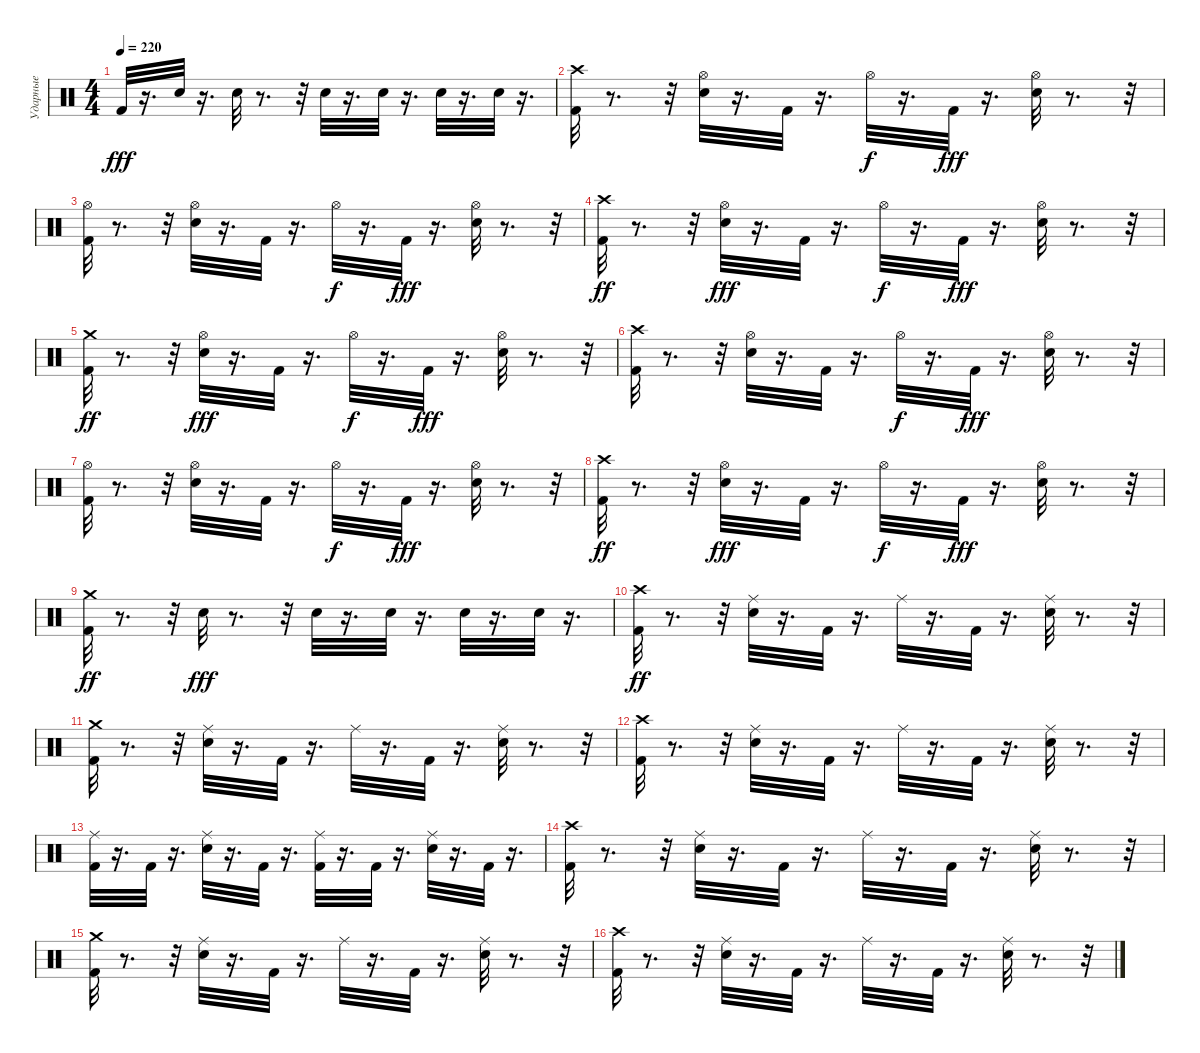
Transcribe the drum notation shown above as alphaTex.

\track ("Ударные" "Ударные") {instrument percussion}
\staff {score}
\articulation defaults
\ts (4 4)
\tempo 220
\clef neutral
\ks c "Kick (hit) 2".32{dy fff}
r.16{d} "Snare (hit) 2".32 r.16{d} "Snare (hit) 2".32 r.8{d} r.32 "Snare (hit) 2".32 r.16{d} "Snare (hit) 2".32 r.16{d} "Snare (hit) 2".32 r.16{d} "Snare (hit) 2".32 r.16{d} |
("Crash high (hit)" "Kick (hit) 2").32 r.8{d} r.32 ("Hi-Hat (open)" "Snare (hit) 2").32 r.16{d} "Kick (hit) 2".32 r.16{d} "Hi-Hat (open)".32{dy f} r.16{d} "Kick (hit) 2".32{dy fff} r.16{d} ("Hi-Hat (open)" "Snare (hit) 2").32 r.8{d} r.32 |
("Hi-Hat (open)" "Kick (hit) 2").32 r.8{d} r.32 ("Hi-Hat (open)" "Snare (hit) 2").32 r.16{d} "Kick (hit) 2".32 r.16{d} "Hi-Hat (open)".32{dy f} r.16{d} "Kick (hit) 2".32{dy fff} r.16{d} ("Hi-Hat (open)" "Snare (hit) 2").32 r.8{d} r.32 |
("Kick (hit) 2" "Crash high (hit)").32{dy ff} r.8{d} r.32 ("Snare (hit) 2" "Hi-Hat (open)").32{dy fff} r.16{d} "Kick (hit) 2".32 r.16{d} "Hi-Hat (open)".32{dy f} r.16{d} "Kick (hit) 2".32{dy fff} r.16{d} ("Snare (hit) 2" "Hi-Hat (open)").32 r.8{d} r.32 |
("Kick (hit) 2" "Crash medium (hit)").32{dy ff} r.8{d} r.32 ("Snare (hit) 2" "Hi-Hat (open)").32{dy fff} r.16{d} "Kick (hit) 2".32 r.16{d} "Hi-Hat (open)".32{dy f} r.16{d} "Kick (hit) 2".32{dy fff} r.16{d} ("Snare (hit) 2" "Hi-Hat (open)").32 r.8{d} r.32 |
("Crash high (hit)" "Kick (hit) 2").32 r.8{d} r.32 ("Hi-Hat (open)" "Snare (hit) 2").32 r.16{d} "Kick (hit) 2".32 r.16{d} "Hi-Hat (open)".32{dy f} r.16{d} "Kick (hit) 2".32{dy fff} r.16{d} ("Hi-Hat (open)" "Snare (hit) 2").32 r.8{d} r.32 |
("Hi-Hat (open)" "Kick (hit) 2").32 r.8{d} r.32 ("Hi-Hat (open)" "Snare (hit) 2").32 r.16{d} "Kick (hit) 2".32 r.16{d} "Hi-Hat (open)".32{dy f} r.16{d} "Kick (hit) 2".32{dy fff} r.16{d} ("Hi-Hat (open)" "Snare (hit) 2").32 r.8{d} r.32 |
("Kick (hit) 2" "Crash high (hit)").32{dy ff} r.8{d} r.32 ("Snare (hit) 2" "Hi-Hat (open)").32{dy fff} r.16{d} "Kick (hit) 2".32 r.16{d} "Hi-Hat (open)".32{dy f} r.16{d} "Kick (hit) 2".32{dy fff} r.16{d} ("Snare (hit) 2" "Hi-Hat (open)").32 r.8{d} r.32 |
("Kick (hit) 2" "Crash medium (hit)").32{dy ff} r.8{d} r.32 "Snare (hit) 2".32{dy fff} r.8{d} r.32 "Snare (hit) 2".32 r.16{d} "Snare (hit) 2".32 r.16{d} "Snare (hit) 2".32 r.16{d} "Snare (hit) 2".32 r.16{d} |
("Kick (hit) 2" "Crash high (hit)").32{dy ff} r.8{d} r.32 ("Ride (middle)" "Snare (hit) 2").32 r.16{d} "Kick (hit) 2".32 r.16{d} "Ride (middle)".32 r.16{d} "Kick (hit) 2".32 r.16{d} ("Ride (middle)" "Snare (hit) 2").32 r.8{d} r.32 |
("Crash medium (hit)" "Kick (hit) 2").32 r.8{d} r.32 ("Snare (hit) 2" "Ride (middle)").32 r.16{d} "Kick (hit) 2".32 r.16{d} "Ride (middle)".32 r.16{d} "Kick (hit) 2".32 r.16{d} ("Snare (hit) 2" "Ride (middle)").32 r.8{d} r.32 |
("Kick (hit) 2" "Crash high (hit)").32 r.8{d} r.32 ("Snare (hit) 2" "Ride (middle)").32 r.16{d} "Kick (hit) 2".32 r.16{d} "Ride (middle)".32 r.16{d} "Kick (hit) 2".32 r.16{d} ("Snare (hit) 2" "Ride (middle)").32 r.8{d} r.32 |
("Ride (middle)" "Kick (hit) 2").32 r.16{d} "Kick (hit) 2".32 r.16{d} ("Ride (middle)" "Snare (hit) 2").32 r.16{d} "Kick (hit) 2".32 r.16{d} ("Ride (middle)" "Kick (hit) 2").32 r.16{d} "Kick (hit) 2".32 r.16{d} ("Ride (middle)" "Snare (hit) 2").32 r.16{d} "Kick (hit) 2".32 r.16{d} |
("Kick (hit) 2" "Crash high (hit)").32 r.8{d} r.32 ("Ride (middle)" "Snare (hit) 2").32 r.16{d} "Kick (hit) 2".32 r.16{d} "Ride (middle)".32 r.16{d} "Kick (hit) 2".32 r.16{d} ("Ride (middle)" "Snare (hit) 2").32 r.8{d} r.32 |
("Crash medium (hit)" "Kick (hit) 2").32 r.8{d} r.32 ("Snare (hit) 2" "Ride (middle)").32 r.16{d} "Kick (hit) 2".32 r.16{d} "Ride (middle)".32 r.16{d} "Kick (hit) 2".32 r.16{d} ("Snare (hit) 2" "Ride (middle)").32 r.8{d} r.32 |
("Kick (hit) 2" "Crash high (hit)").32 r.8{d} r.32 ("Snare (hit) 2" "Ride (middle)").32 r.16{d} "Kick (hit) 2".32 r.16{d} "Ride (middle)".32 r.16{d} "Kick (hit) 2".32 r.16{d} ("Snare (hit) 2" "Ride (middle)").32 r.8{d} r.32
